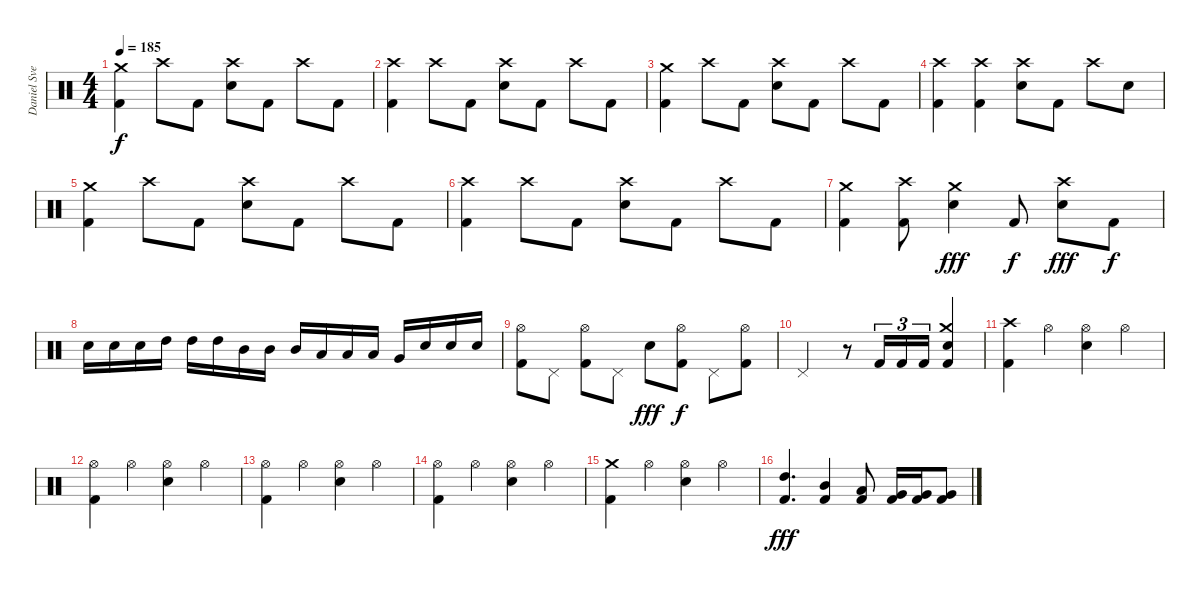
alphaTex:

\track ("Daniel Svensson" "Daniel Sve") {instrument percussion}
\staff {score}
\articulation defaults
\ts (4 4)
\tempo 185
\clef neutral
\ks c
("Kick (hit) 2" "Crash medium (hit)").4{dy f} "Crash high (hit)".8 "Kick (hit) 2".8 ("Electric Snare (hit)" "Crash high (hit)").8 "Kick (hit) 2".8 "Crash high (hit)".8 "Kick (hit) 2".8 |
("Kick (hit) 2" "Crash high (hit)").4 "Crash high (hit)".8 "Kick (hit) 2".8 ("Electric Snare (hit)" "Crash high (hit)").8 "Kick (hit) 2".8 "Crash high (hit)".8 "Kick (hit) 2".8 |
("Kick (hit) 2" "Crash medium (hit)").4 "Crash high (hit)".8 "Kick (hit) 2".8 ("Electric Snare (hit)" "Crash high (hit)").8 "Kick (hit) 2".8 "Crash high (hit)".8 "Kick (hit) 2".8 |
("Kick (hit) 2" "Crash high (hit)").4 ("Kick (hit) 2" "Crash high (hit)").4 ("Electric Snare (hit)" "Crash high (hit)").8 "Kick (hit) 2".8 "Crash high (hit)".8 "Electric Snare (hit)".8 |
("Kick (hit) 2" "Crash medium (hit)").4 "Crash high (hit)".8 "Kick (hit) 2".8 ("Electric Snare (hit)" "Crash high (hit)").8 "Kick (hit) 2".8 "Crash high (hit)".8 "Kick (hit) 2".8 |
("Kick (hit) 2" "Crash high (hit)").4 "Crash high (hit)".8 "Kick (hit) 2".8 ("Electric Snare (hit)" "Crash high (hit)").8 "Kick (hit) 2".8 "Crash high (hit)".8 "Kick (hit) 2".8 |
("Kick (hit) 2" "Crash medium (hit)").4 ("Kick (hit) 2" "Crash high (hit)").8 ("Electric Snare (hit)" "Crash medium (hit)").4{dy fff} "Kick (hit) 2".8{dy f} ("Electric Snare (hit)" "Crash high (hit)").8{dy fff} "Kick (hit) 2".8{dy f} |
"Electric Snare (hit)".16 "Electric Snare (hit)".16 "Electric Snare (hit)".16 "High Tom (hit)".16 "High Tom (hit)".16 "High Tom (hit)".16 "Mid Tom (hit)".16 "Mid Tom (hit)".16 "Mid Tom (hit)".16 "Low Tom (hit)".16 "Low Tom (hit)".16 "Low Tom (hit)".16 "Very Low Tom (hit)".16 "Electric Snare (hit)".16 "Electric Snare (hit)".16 "Electric Snare (hit)".16 |
("Kick (hit) 2" "Hi-Hat (open)").8 "Pedal Hi-Hat (hit)".8 ("Kick (hit) 2" "Hi-Hat (open)").8 "Pedal Hi-Hat (hit)".8 "Electric Snare (hit)".8{dy fff} ("Kick (hit) 2" "Hi-Hat (open)").8{dy f} "Pedal Hi-Hat (hit)".8 ("Kick (hit) 2" "Hi-Hat (open)").8 |
"Pedal Hi-Hat (hit)".2 r.8 "Kick (hit) 2".16{tu (3 2)} "Kick (hit) 2".16{tu (3 2)} "Kick (hit) 2".16{tu (3 2)} ("Kick (hit) 2" "Electric Snare (hit)" "Crash medium (hit)").4 |
("Kick (hit) 2" "Crash high (hit)").4 "Hi-Hat (open)".4 ("Electric Snare (hit)" "Hi-Hat (open)").4 "Hi-Hat (open)".4 |
("Kick (hit) 2" "Hi-Hat (open)").4 "Hi-Hat (open)".4 ("Electric Snare (hit)" "Hi-Hat (open)").4 "Hi-Hat (open)".4 |
("Kick (hit) 2" "Hi-Hat (open)").4 "Hi-Hat (open)".4 ("Electric Snare (hit)" "Hi-Hat (open)").4 "Hi-Hat (open)".4 |
("Kick (hit) 2" "Hi-Hat (open)").4 "Hi-Hat (open)".4 ("Electric Snare (hit)" "Hi-Hat (open)").4 "Hi-Hat (open)".4 |
("Kick (hit) 2" "Crash medium (hit)").4 "Hi-Hat (open)".4 ("Electric Snare (hit)" "Hi-Hat (open)").4 "Hi-Hat (open)".4 |
("Kick (hit) 2" "High Tom (hit)").4{d dy fff} ("Kick (hit) 2" "Mid Tom (hit)").4 ("Kick (hit) 2" "Low Tom (hit)").8 ("Kick (hit) 2" "Very Low Tom (hit)").16 ("Kick (hit) 2" "Very Low Tom (hit)").16 ("Kick (hit) 2" "Very Low Tom (hit)").8
